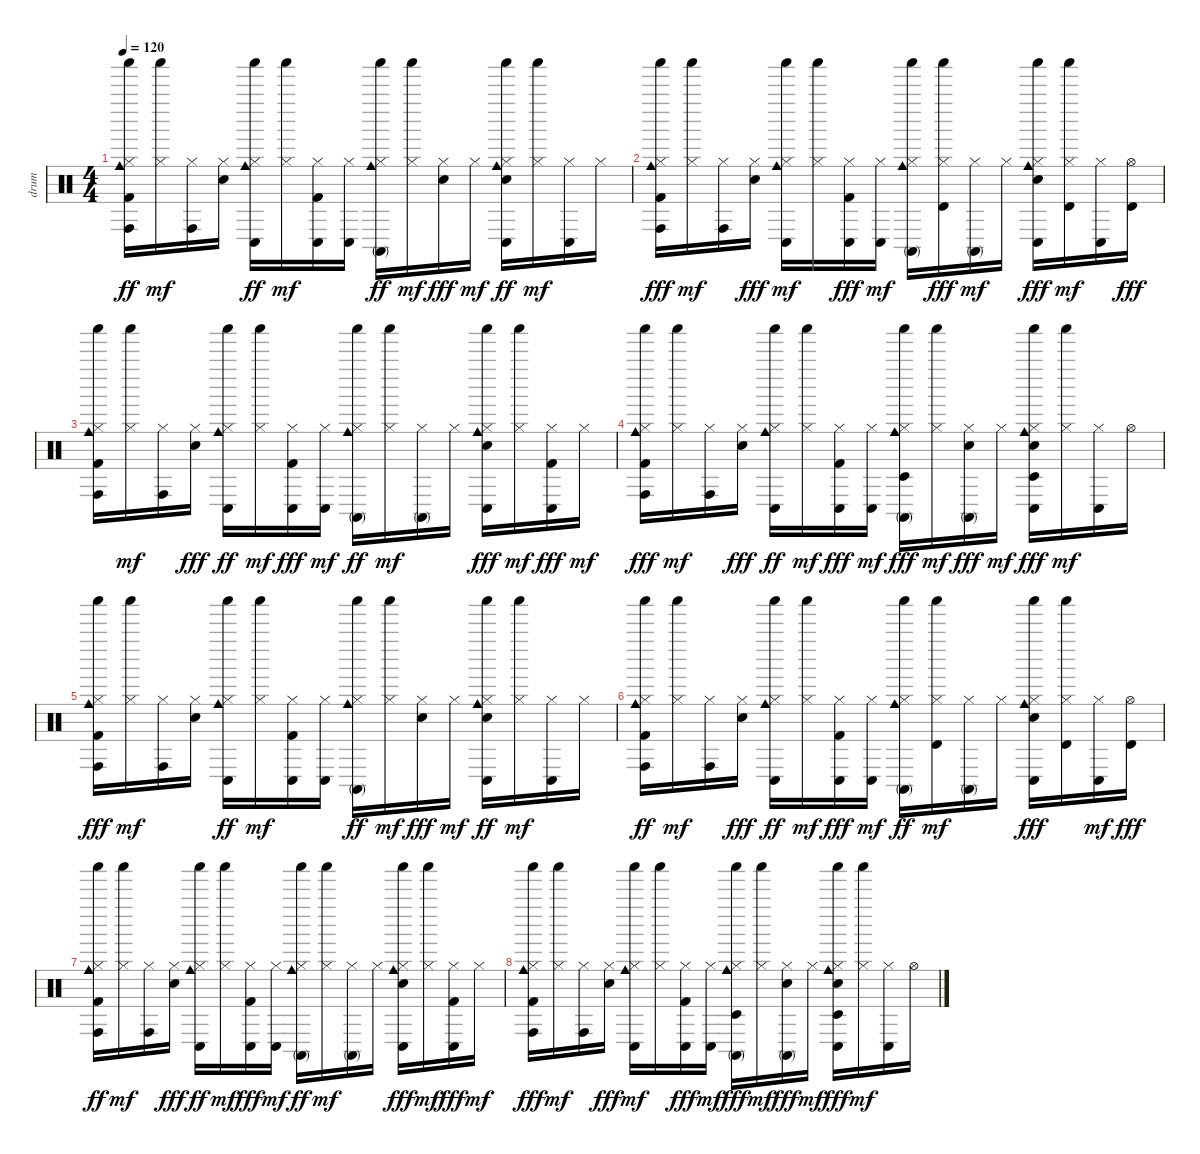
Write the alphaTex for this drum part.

\track ("drum" "drum") {instrument percussion}
\staff {score}
\articulation defaults
\ts (4 4)
\tempo 120
\clef neutral
\ks c
("Conga high (hit)" "Shaker (hit)" "Cowbell medium (hit)" "Kick (hit) 2" "Hi-Hat (closed)").16{dy ff} ("Shaker (hit)" "Hi-Hat (closed)").16{dy mf} ("Conga high (hit)" "Hi-Hat (closed)").16 ("Electric Snare (hit)" "Hi-Hat (closed)").16 ("Cowbell medium (hit)" "Conga low (hit)" "Shaker (hit)" "Hi-Hat (closed)").16{dy ff} ("Shaker (hit)" "Hi-Hat (closed)").16{dy mf} ("Conga low (hit)" "Kick (hit) 2" "Hi-Hat (closed)").16 ("Conga low (hit)" "Hi-Hat (closed)").16 ("Conga high (mute)" "Cowbell medium (hit)" "Shaker (hit)" "Hi-Hat (closed)").16{dy ff} ("Shaker (hit)" "Hi-Hat (closed)").16{dy mf} ("Hi-Hat (closed)" "Electric Snare (hit)").16{dy fff} "Hi-Hat (closed)".16{dy mf} ("Conga low (hit)" "Shaker (hit)" "Cowbell medium (hit)" "Electric Snare (hit)" "Hi-Hat (closed)").16{dy ff} ("Hi-Hat (closed)" "Shaker (hit)").16{dy mf} ("Conga low (hit)" "Hi-Hat (closed)").16 "Hi-Hat (closed)".16 |
("Conga high (hit)" "Shaker (hit)" "Cowbell medium (hit)" "Hi-Hat (closed)" "Kick (hit) 2").16{dy fff} ("Shaker (hit)" "Hi-Hat (closed)").16{dy mf} ("Conga high (hit)" "Hi-Hat (closed)").16 ("Hi-Hat (closed)" "Electric Snare (hit)").16{dy fff} ("Conga low (hit)" "Cowbell medium (hit)" "Hi-Hat (closed)" "Shaker (hit)").16{dy mf} ("Shaker (hit)" "Hi-Hat (closed)").16 ("Conga low (hit)" "Hi-Hat (closed)" "Kick (hit) 2").16{dy fff} ("Conga low (hit)" "Hi-Hat (closed)").16{dy mf} ("Conga high (mute)" "Cowbell medium (hit)" "Hi-Hat (closed)" "Shaker (hit)").16 ("Shaker (hit)" "Hi-Hat (closed)" "Timbale high (hit)").16{dy fff} ("Conga high (mute)" "Hi-Hat (closed)").16{dy mf} "Hi-Hat (closed)".16 ("Conga low (hit)" "Cowbell medium (hit)" "Shaker (hit)" "Hi-Hat (closed)" "Electric Snare (hit)").16{dy fff} ("Shaker (hit)" "Timbale high (hit)" "Hi-Hat (closed)").16{dy mf} ("Conga low (hit)" "Hi-Hat (closed)").16 ("Hi-Hat (open)" "Timbale high (hit)").16{dy fff} |
("Conga high (hit)" "Shaker (hit)" "Cowbell medium (hit)" "Hi-Hat (closed)" "Kick (hit) 2").16 ("Shaker (hit)" "Hi-Hat (closed)").16{dy mf} ("Conga high (hit)" "Hi-Hat (closed)").16 ("Hi-Hat (closed)" "Electric Snare (hit)").16{dy fff} ("Conga low (hit)" "Cowbell medium (hit)" "Shaker (hit)" "Hi-Hat (closed)").16{dy ff} ("Shaker (hit)" "Hi-Hat (closed)").16{dy mf} ("Hi-Hat (closed)" "Conga low (hit)" "Kick (hit) 2").16{dy fff} ("Conga low (hit)" "Hi-Hat (closed)").16{dy mf} ("Conga high (mute)" "Cowbell medium (hit)" "Shaker (hit)" "Hi-Hat (closed)").16{dy ff} ("Shaker (hit)" "Hi-Hat (closed)").16{dy mf} ("Conga high (mute)" "Hi-Hat (closed)").16 "Hi-Hat (closed)".16 ("Conga low (hit)" "Shaker (hit)" "Cowbell medium (hit)" "Hi-Hat (closed)" "Electric Snare (hit)").16{dy fff} ("Shaker (hit)" "Hi-Hat (closed)").16{dy mf} ("Conga low (hit)" "Hi-Hat (closed)" "Kick (hit) 2").16{dy fff} "Hi-Hat (closed)".16{dy mf} |
("Conga high (hit)" "Cowbell medium (hit)" "Shaker (hit)" "Hi-Hat (closed)" "Kick (hit) 2").16{dy fff} ("Hi-Hat (closed)" "Shaker (hit)").16{dy mf} ("Conga high (hit)" "Hi-Hat (closed)").16 ("Hi-Hat (closed)" "Electric Snare (hit)").16{dy fff} ("Conga low (hit)" "Cowbell medium (hit)" "Shaker (hit)" "Hi-Hat (closed)").16{dy ff} ("Shaker (hit)" "Hi-Hat (closed)").16{dy mf} ("Conga low (hit)" "Hi-Hat (closed)" "Kick (hit) 2").16{dy fff} ("Conga low (hit)" "Hi-Hat (closed)").16{dy mf} ("Conga high (mute)" "Cowbell medium (hit)" "Shaker (hit)" "Hi-Hat (closed)" "Timbale low (hit)").16{dy fff} ("Shaker (hit)" "Hi-Hat (closed)").16{dy mf} ("Conga high (mute)" "Hi-Hat (closed)" "Electric Snare (hit)").16{dy fff} "Hi-Hat (closed)".16{dy mf} ("Conga low (hit)" "Hi-Hat (closed)" "Shaker (hit)" "Cowbell medium (hit)" "Electric Snare (hit)" "Timbale low (hit)").16{dy fff} ("Shaker (hit)" "Hi-Hat (closed)").16{dy mf} ("Conga low (hit)" "Hi-Hat (closed)").16 "Hi-Hat (open)".16 |
("Conga high (hit)" "Shaker (hit)" "Cowbell medium (hit)" "Hi-Hat (closed)" "Kick (hit) 2").16{dy fff} ("Shaker (hit)" "Hi-Hat (closed)").16{dy mf} ("Conga high (hit)" "Hi-Hat (closed)").16 ("Electric Snare (hit)" "Hi-Hat (closed)").16 ("Conga low (hit)" "Cowbell medium (hit)" "Shaker (hit)" "Hi-Hat (closed)").16{dy ff} ("Shaker (hit)" "Hi-Hat (closed)").16{dy mf} ("Conga low (hit)" "Kick (hit) 2" "Hi-Hat (closed)").16 ("Conga low (hit)" "Hi-Hat (closed)").16 ("Conga high (mute)" "Cowbell medium (hit)" "Shaker (hit)" "Hi-Hat (closed)").16{dy ff} ("Shaker (hit)" "Hi-Hat (closed)").16{dy mf} ("Hi-Hat (closed)" "Electric Snare (hit)").16{dy fff} "Hi-Hat (closed)".16{dy mf} ("Conga low (hit)" "Shaker (hit)" "Cowbell medium (hit)" "Electric Snare (hit)" "Hi-Hat (closed)").16{dy ff} ("Shaker (hit)" "Hi-Hat (closed)").16{dy mf} ("Conga low (hit)" "Hi-Hat (closed)").16 "Hi-Hat (closed)".16 |
("Conga high (hit)" "Shaker (hit)" "Cowbell medium (hit)" "Kick (hit) 2" "Hi-Hat (closed)").16{dy ff} ("Shaker (hit)" "Hi-Hat (closed)").16{dy mf} ("Conga high (hit)" "Hi-Hat (closed)").16 ("Hi-Hat (closed)" "Electric Snare (hit)").16{dy fff} ("Conga low (hit)" "Cowbell medium (hit)" "Shaker (hit)" "Hi-Hat (closed)").16{dy ff} ("Shaker (hit)" "Hi-Hat (closed)").16{dy mf} ("Conga low (hit)" "Hi-Hat (closed)" "Kick (hit) 2").16{dy fff} ("Conga low (hit)" "Hi-Hat (closed)").16{dy mf} ("Conga high (mute)" "Cowbell medium (hit)" "Shaker (hit)" "Hi-Hat (closed)").16{dy ff} ("Shaker (hit)" "Timbale high (hit)" "Hi-Hat (closed)").16{dy mf} ("Conga high (mute)" "Hi-Hat (closed)").16 "Hi-Hat (closed)".16 ("Conga low (hit)" "Cowbell medium (hit)" "Shaker (hit)" "Hi-Hat (closed)" "Electric Snare (hit)").16{dy fff} ("Shaker (hit)" "Hi-Hat (closed)" "Timbale high (hit)").16 ("Conga low (hit)" "Hi-Hat (closed)").16{dy mf} ("Hi-Hat (open)" "Timbale high (hit)").16{dy fff} |
("Conga high (hit)" "Shaker (hit)" "Cowbell medium (hit)" "Kick (hit) 2" "Hi-Hat (closed)").16{dy ff} ("Shaker (hit)" "Hi-Hat (closed)").16{dy mf} ("Conga high (hit)" "Hi-Hat (closed)").16 ("Hi-Hat (closed)" "Electric Snare (hit)").16{dy fff} ("Conga low (hit)" "Cowbell medium (hit)" "Shaker (hit)" "Hi-Hat (closed)").16{dy ff} ("Shaker (hit)" "Hi-Hat (closed)").16{dy mf} ("Conga low (hit)" "Hi-Hat (closed)" "Kick (hit) 2").16{dy fff} ("Conga low (hit)" "Hi-Hat (closed)").16{dy mf} ("Conga high (mute)" "Cowbell medium (hit)" "Shaker (hit)" "Hi-Hat (closed)").16{dy ff} ("Hi-Hat (closed)" "Shaker (hit)").16{dy mf} ("Conga high (mute)" "Hi-Hat (closed)").16 "Hi-Hat (closed)".16 ("Conga low (hit)" "Cowbell medium (hit)" "Shaker (hit)" "Hi-Hat (closed)" "Electric Snare (hit)").16{dy fff} ("Hi-Hat (closed)" "Shaker (hit)").16{dy mf} ("Conga low (hit)" "Hi-Hat (closed)" "Kick (hit) 2").16{dy fff} "Hi-Hat (closed)".16{dy mf} |
("Conga high (hit)" "Cowbell medium (hit)" "Shaker (hit)" "Hi-Hat (closed)" "Kick (hit) 2").16{dy fff} ("Shaker (hit)" "Hi-Hat (closed)").16{dy mf} ("Conga high (hit)" "Hi-Hat (closed)").16 ("Hi-Hat (closed)" "Electric Snare (hit)").16{dy fff} ("Conga low (hit)" "Cowbell medium (hit)" "Hi-Hat (closed)" "Shaker (hit)").16{dy mf} ("Shaker (hit)" "Hi-Hat (closed)").16 ("Conga low (hit)" "Hi-Hat (closed)" "Kick (hit) 2").16{dy fff} ("Conga low (hit)" "Hi-Hat (closed)").16{dy mf} ("Conga high (mute)" "Cowbell medium (hit)" "Shaker (hit)" "Hi-Hat (closed)" "Timbale low (hit)").16{dy fff} ("Shaker (hit)" "Hi-Hat (closed)").16{dy mf} ("Conga high (mute)" "Hi-Hat (closed)" "Electric Snare (hit)").16{dy fff} "Hi-Hat (closed)".16{dy mf} ("Conga low (hit)" "Hi-Hat (closed)" "Shaker (hit)" "Cowbell medium (hit)" "Electric Snare (hit)" "Timbale low (hit)").16{dy fff} ("Shaker (hit)" "Hi-Hat (closed)").16{dy mf} ("Conga low (hit)" "Hi-Hat (closed)").16 "Hi-Hat (open)".16
